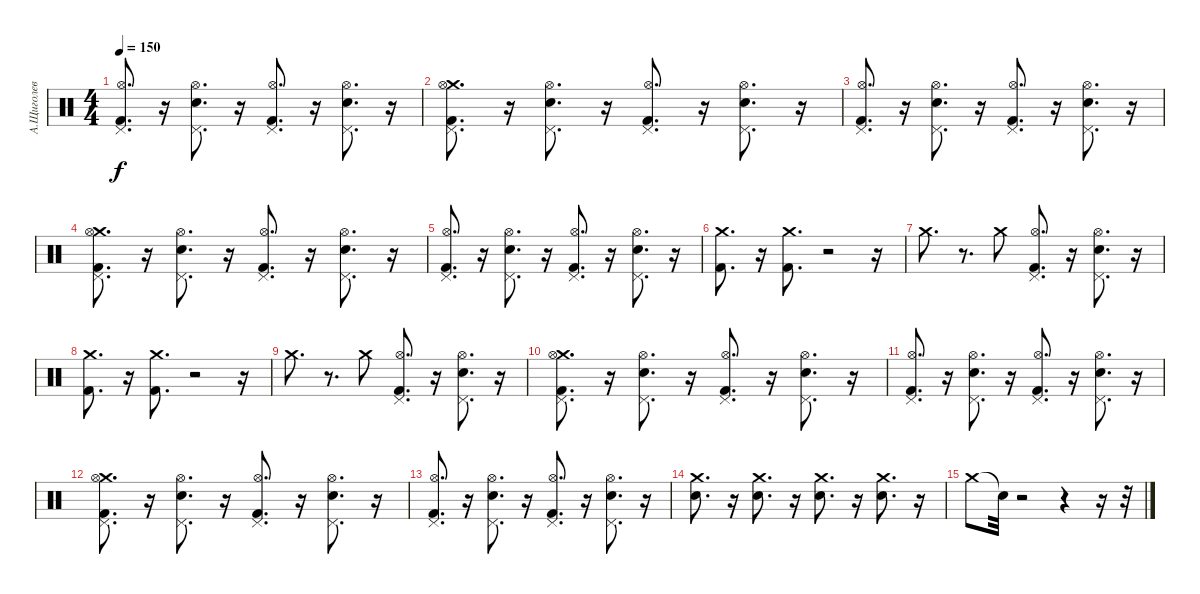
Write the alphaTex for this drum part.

\track ("А.Щиголев" "А.Щиголев") {instrument percussion}
\staff {score}
\articulation defaults
\ts (4 4)
\tempo 150
\clef neutral
\ks c
("Kick (hit) 2" "Hi-Hat (open)" "Pedal Hi-Hat (hit)").8{d dy f} r.16 ("Snare (hit) 2" "Hi-Hat (open)" "Pedal Hi-Hat (hit)").8{d} r.16 ("Kick (hit) 2" "Hi-Hat (open)" "Pedal Hi-Hat (hit)").8{d} r.16 ("Snare (hit) 2" "Hi-Hat (open)" "Pedal Hi-Hat (hit)").8{d} r.16 |
("Crash medium (hit)" "Kick (hit) 2" "Hi-Hat (open)" "Pedal Hi-Hat (hit)").8{d} r.16 ("Snare (hit) 2" "Hi-Hat (open)" "Pedal Hi-Hat (hit)").8{d} r.16 ("Kick (hit) 2" "Hi-Hat (open)" "Pedal Hi-Hat (hit)").8{d} r.16 ("Snare (hit) 2" "Hi-Hat (open)" "Pedal Hi-Hat (hit)").8{d} r.16 |
("Kick (hit) 2" "Hi-Hat (open)" "Pedal Hi-Hat (hit)").8{d} r.16 ("Snare (hit) 2" "Hi-Hat (open)" "Pedal Hi-Hat (hit)").8{d} r.16 ("Kick (hit) 2" "Hi-Hat (open)" "Pedal Hi-Hat (hit)").8{d} r.16 ("Snare (hit) 2" "Hi-Hat (open)" "Pedal Hi-Hat (hit)").8{d} r.16 |
("Crash medium (hit)" "Kick (hit) 2" "Hi-Hat (open)" "Pedal Hi-Hat (hit)").8{d} r.16 ("Snare (hit) 2" "Hi-Hat (open)" "Pedal Hi-Hat (hit)").8{d} r.16 ("Kick (hit) 2" "Hi-Hat (open)" "Pedal Hi-Hat (hit)").8{d} r.16 ("Snare (hit) 2" "Hi-Hat (open)" "Pedal Hi-Hat (hit)").8{d} r.16 |
("Kick (hit) 2" "Hi-Hat (open)" "Pedal Hi-Hat (hit)").8{d} r.16 ("Snare (hit) 2" "Hi-Hat (open)" "Pedal Hi-Hat (hit)").8{d} r.16 ("Kick (hit) 2" "Hi-Hat (open)" "Pedal Hi-Hat (hit)").8{d} r.16 ("Snare (hit) 2" "Hi-Hat (open)" "Pedal Hi-Hat (hit)").8{d} r.16 |
("Crash medium (hit)" "Kick (hit) 2").8{d} r.16 ("Crash medium (hit)" "Kick (hit) 2").8{d} r.2 r.16 |
"Crash medium (hit)".8{d} r.8{d} "Crash medium (hit)".8 ("Kick (hit) 2" "Hi-Hat (open)" "Pedal Hi-Hat (hit)").8{d} r.16 ("Snare (hit) 2" "Hi-Hat (open)" "Pedal Hi-Hat (hit)").8{d} r.16 |
("Crash medium (hit)" "Kick (hit) 2").8{d} r.16 ("Crash medium (hit)" "Kick (hit) 2").8{d} r.2 r.16 |
"Crash medium (hit)".8{d} r.8{d} "Crash medium (hit)".8 ("Kick (hit) 2" "Hi-Hat (open)" "Pedal Hi-Hat (hit)").8{d} r.16 ("Snare (hit) 2" "Hi-Hat (open)" "Pedal Hi-Hat (hit)").8{d} r.16 |
("Crash medium (hit)" "Kick (hit) 2" "Hi-Hat (open)" "Pedal Hi-Hat (hit)").8{d} r.16 ("Snare (hit) 2" "Hi-Hat (open)" "Pedal Hi-Hat (hit)").8{d} r.16 ("Kick (hit) 2" "Hi-Hat (open)" "Pedal Hi-Hat (hit)").8{d} r.16 ("Snare (hit) 2" "Hi-Hat (open)" "Pedal Hi-Hat (hit)").8{d} r.16 |
("Kick (hit) 2" "Hi-Hat (open)" "Pedal Hi-Hat (hit)").8{d} r.16 ("Snare (hit) 2" "Hi-Hat (open)" "Pedal Hi-Hat (hit)").8{d} r.16 ("Kick (hit) 2" "Hi-Hat (open)" "Pedal Hi-Hat (hit)").8{d} r.16 ("Snare (hit) 2" "Hi-Hat (open)" "Pedal Hi-Hat (hit)").8{d} r.16 |
("Crash medium (hit)" "Kick (hit) 2" "Hi-Hat (open)" "Pedal Hi-Hat (hit)").8{d} r.16 ("Snare (hit) 2" "Hi-Hat (open)" "Pedal Hi-Hat (hit)").8{d} r.16 ("Kick (hit) 2" "Hi-Hat (open)" "Pedal Hi-Hat (hit)").8{d} r.16 ("Snare (hit) 2" "Hi-Hat (open)" "Pedal Hi-Hat (hit)").8{d} r.16 |
("Kick (hit) 2" "Hi-Hat (open)" "Pedal Hi-Hat (hit)").8{d} r.16 ("Snare (hit) 2" "Hi-Hat (open)" "Pedal Hi-Hat (hit)").8{d} r.16 ("Kick (hit) 2" "Hi-Hat (open)" "Pedal Hi-Hat (hit)").8{d} r.16 ("Snare (hit) 2" "Hi-Hat (open)" "Pedal Hi-Hat (hit)").8{d} r.16 |
("Snare (hit) 2" "Crash medium (hit)").8{d} r.16 ("Snare (hit) 2" "Crash medium (hit)").8{d} r.16 ("Snare (hit) 2" "Crash medium (hit)").8{d} r.16 ("Snare (hit) 2" "Crash medium (hit)").8{d} r.16 |
"Crash medium (hit)".8 "Snare (hit)"{t}.32 r.2 r.4 r.16 r.32
